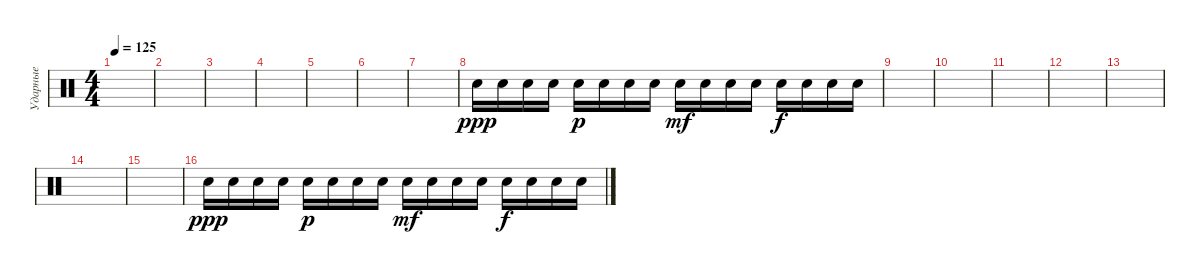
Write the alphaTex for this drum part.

\track ("Ударные" "Ударные") {instrument percussion}
\staff {score}
\articulation defaults
\ts (4 4)
\tempo 125
\clef neutral
\ks c
|
|
|
|
|
|
|
"Snare (hit) 2".16{dy ppp} "Snare (hit) 2".16 "Snare (hit) 2".16 "Snare (hit) 2".16 "Snare (hit) 2".16{dy p} "Snare (hit) 2".16 "Snare (hit) 2".16 "Snare (hit) 2".16 "Snare (hit) 2".16{dy mf} "Snare (hit) 2".16 "Snare (hit) 2".16 "Snare (hit) 2".16 "Snare (hit) 2".16{dy f} "Snare (hit) 2".16 "Snare (hit) 2".16 "Snare (hit) 2".16 |
|
|
|
|
|
|
|
"Snare (hit) 2".16{dy ppp} "Snare (hit) 2".16 "Snare (hit) 2".16 "Snare (hit) 2".16 "Snare (hit) 2".16{dy p} "Snare (hit) 2".16 "Snare (hit) 2".16 "Snare (hit) 2".16 "Snare (hit) 2".16{dy mf} "Snare (hit) 2".16 "Snare (hit) 2".16 "Snare (hit) 2".16 "Snare (hit) 2".16{dy f} "Snare (hit) 2".16 "Snare (hit) 2".16 "Snare (hit) 2".16
